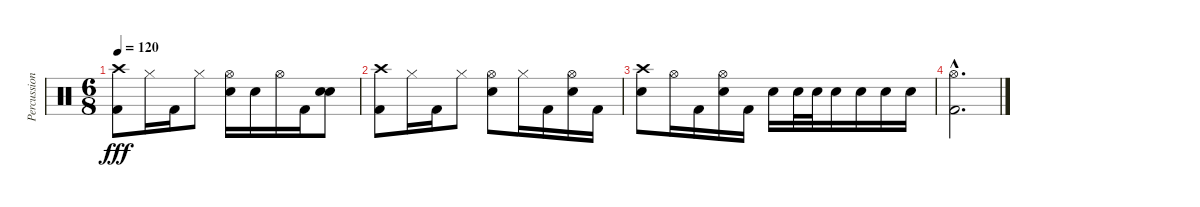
\track ("Percussion" "Percussion") {instrument percussion}
\staff {score}
\articulation defaults
\ts (6 8)
\tempo 120
\clef neutral
\ks c
("Crash high (hit)" "Kick (hit) 2").8{dy fff} "Hi-Hat (closed)".16 "Kick (hit) 2".16 "Hi-Hat (closed)".8 ("Hi-Hat (open)" "Electric Snare (hit)").16 "Electric Snare (hit)".16 "Hi-Hat (open)".16 "Kick (hit) 2".16 ("Electric Snare (hit)" "Electric Snare (hit)").8 |
("Crash high (hit)" "Kick (hit) 2").8 "Hi-Hat (closed)".16 "Kick (hit) 2".16 "Hi-Hat (closed)".8 ("Hi-Hat (open)" "Electric Snare (hit)").8 "Hi-Hat (closed)".16 "Kick (hit) 2".16 ("Hi-Hat (open)" "Electric Snare (hit)").16 "Kick (hit) 2".16 |
("Crash high (hit)" "Electric Snare (hit)").8 "Hi-Hat (open)".16 "Kick (hit) 2".16 ("Hi-Hat (open)" "Electric Snare (hit)").16 "Kick (hit) 2".16 "Electric Snare (hit)".16 "Electric Snare (hit)".32 "Electric Snare (hit)".32 "Electric Snare (hit)".16 "Electric Snare (hit)".16 "Electric Snare (hit)".16 "Electric Snare (hit)".16 |
("Hi-Hat (open)"{hac} "Kick (hit) 2"{hac}).2{d}
